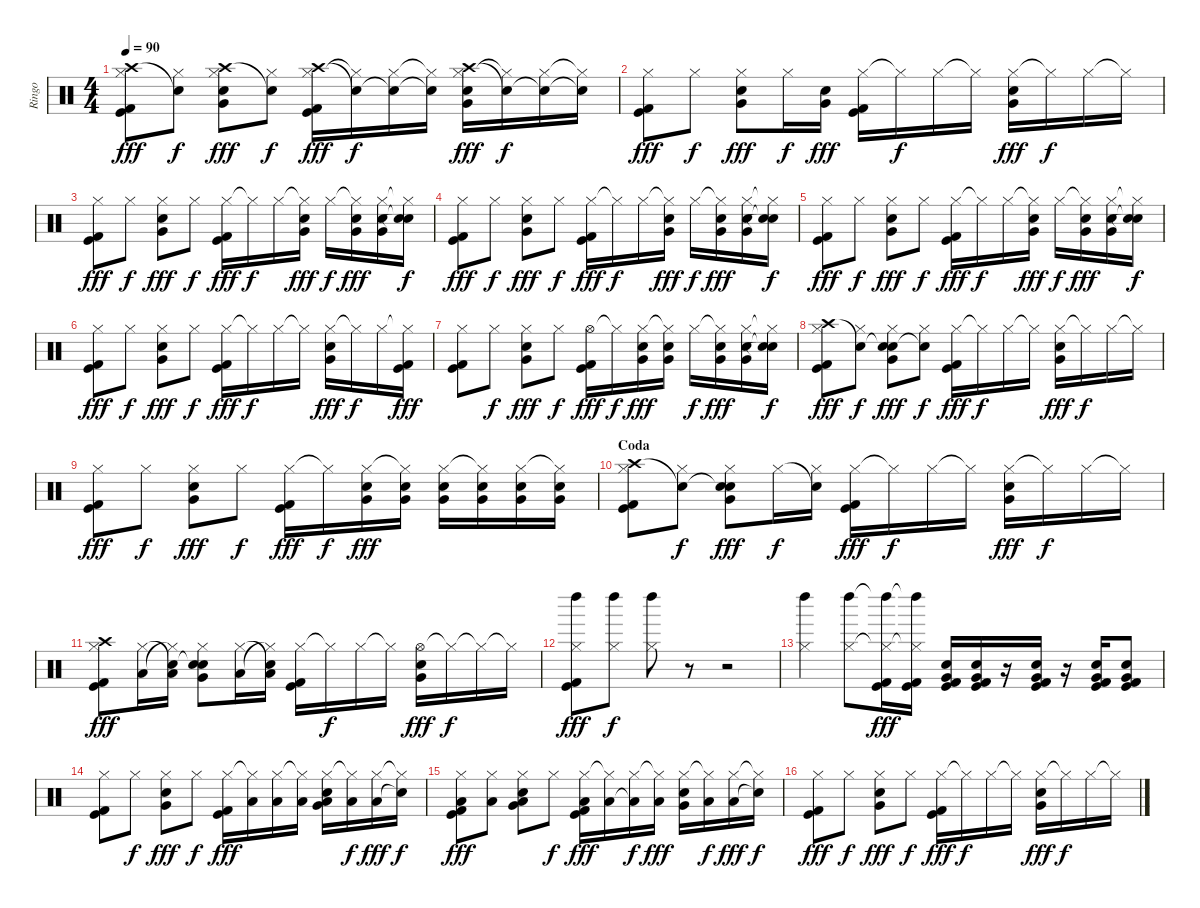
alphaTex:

\track ("Ringo" "Ringo") {instrument percussion}
\staff {score}
\articulation defaults
\ts (4 4)
\tempo 90
\clef neutral
\ks c
("Crash high (hit)" "Hi-Hat (closed)" "Kick (hit) 2" "Kick (hit)").8{dy fff} ("Snare (hit)"{t} "Hi-Hat (closed)").8{dy f} ("Crash high (hit)" "Hi-Hat (closed)" "Snare (hit) 2" "Very Low Tom (hit)").8{dy fff} ("Snare (hit)"{t} "Hi-Hat (closed)").8{dy f} ("Crash high (hit)" "Hi-Hat (closed)" "Kick (hit) 2" "Kick (hit)").16{dy fff} ("Snare (hit)"{t} "Hi-Hat (closed)"{t}).16{dy f} ("Snare (hit)"{t} "Hi-Hat (closed)").16 ("Snare (hit)"{t} "Hi-Hat (closed)"{t}).16 ("Crash high (hit)" "Hi-Hat (closed)" "Snare (hit) 2" "Very Low Tom (hit)").16{dy fff} ("Snare (hit)"{t} "Hi-Hat (closed)"{t}).16{dy f} ("Snare (hit)"{t} "Hi-Hat (closed)").16 ("Snare (hit)"{t} "Hi-Hat (closed)"{t}).16 |
("Hi-Hat (closed)" "Kick (hit) 2" "Kick (hit)").8{dy fff} "Hi-Hat (closed)".8{dy f} ("Hi-Hat (closed)" "Snare (hit) 2" "Very Low Tom (hit)").8{dy fff} "Hi-Hat (closed)".16{dy f} ("Snare (hit) 2" "Very Low Tom (hit)").16{dy fff} ("Hi-Hat (closed)" "Kick (hit) 2" "Kick (hit)").16 "Hi-Hat (closed)"{t}.16{dy f} "Hi-Hat (closed)".16 "Hi-Hat (closed)"{t}.16 ("Hi-Hat (closed)" "Snare (hit) 2" "Very Low Tom (hit)").16{dy fff} "Hi-Hat (closed)"{t}.16{dy f} "Hi-Hat (closed)".16 "Hi-Hat (closed)"{t}.16 |
("Hi-Hat (closed)" "Kick (hit) 2" "Kick (hit)").8{dy fff} "Hi-Hat (closed)".8{dy f} ("Hi-Hat (closed)" "Snare (hit) 2" "Very Low Tom (hit)").8{dy fff} "Hi-Hat (closed)".8{dy f} ("Hi-Hat (closed)" "Kick (hit) 2" "Kick (hit)").16{dy fff} "Hi-Hat (closed)"{t}.16{dy f} "Hi-Hat (closed)".16 ("Hi-Hat (closed)"{t} "Snare (hit) 2" "Very Low Tom (hit)").16{dy fff} "Hi-Hat (closed)".16{dy f} ("Hi-Hat (closed)"{t} "Snare (hit) 2" "Very Low Tom (hit)").16{dy fff} ("Hi-Hat (closed)" "Snare (hit) 2" "Very Low Tom (hit)").16 ("Hi-Hat (closed)"{t} "Snare (hit)"{t} "Snare (hit)"{t}).16{dy f} |
("Hi-Hat (closed)" "Kick (hit) 2" "Kick (hit)").8{dy fff} "Hi-Hat (closed)".8{dy f} ("Hi-Hat (closed)" "Snare (hit) 2" "Very Low Tom (hit)").8{dy fff} "Hi-Hat (closed)".8{dy f} ("Hi-Hat (closed)" "Kick (hit) 2" "Kick (hit)").16{dy fff} "Hi-Hat (closed)"{t}.16{dy f} "Hi-Hat (closed)".16 ("Hi-Hat (closed)"{t} "Snare (hit) 2" "Very Low Tom (hit)").16{dy fff} "Hi-Hat (closed)".16{dy f} ("Hi-Hat (closed)"{t} "Snare (hit) 2" "Very Low Tom (hit)").16{dy fff} ("Hi-Hat (closed)" "Snare (hit) 2" "Very Low Tom (hit)").16 ("Hi-Hat (closed)"{t} "Snare (hit)"{t} "Snare (hit)"{t}).16{dy f} |
("Hi-Hat (closed)" "Kick (hit) 2" "Kick (hit)").8{dy fff} "Hi-Hat (closed)".8{dy f} ("Hi-Hat (closed)" "Snare (hit) 2" "Very Low Tom (hit)").8{dy fff} "Hi-Hat (closed)".8{dy f} ("Hi-Hat (closed)" "Kick (hit) 2" "Kick (hit)").16{dy fff} "Hi-Hat (closed)"{t}.16{dy f} "Hi-Hat (closed)".16 ("Hi-Hat (closed)"{t} "Snare (hit) 2" "Very Low Tom (hit)").16{dy fff} "Hi-Hat (closed)".16{dy f} ("Hi-Hat (closed)"{t} "Snare (hit) 2" "Very Low Tom (hit)").16{dy fff} ("Hi-Hat (closed)" "Snare (hit) 2" "Very Low Tom (hit)").16 ("Hi-Hat (closed)"{t} "Snare (hit)"{t} "Snare (hit)"{t}).16{dy f} |
("Hi-Hat (closed)" "Kick (hit) 2" "Kick (hit)").8{dy fff} "Hi-Hat (closed)".8{dy f} ("Hi-Hat (closed)" "Snare (hit) 2" "Very Low Tom (hit)").8{dy fff} "Hi-Hat (closed)".8{dy f} ("Hi-Hat (closed)" "Kick (hit) 2" "Kick (hit)").16{dy fff} "Hi-Hat (closed)"{t}.16{dy f} "Hi-Hat (closed)".16 "Hi-Hat (closed)"{t}.16 ("Hi-Hat (closed)" "Snare (hit) 2" "Very Low Tom (hit)").16{dy fff} "Hi-Hat (closed)"{t}.16{dy f} "Hi-Hat (closed)".16 ("Hi-Hat (closed)"{t} "Kick (hit) 2" "Kick (hit)").16{dy fff} |
("Hi-Hat (closed)" "Kick (hit) 2" "Kick (hit)").8 "Hi-Hat (closed)".8{dy f} ("Hi-Hat (closed)" "Snare (hit) 2" "Very Low Tom (hit)").8{dy fff} "Hi-Hat (closed)".8{dy f} ("Hi-Hat (open)" "Kick (hit) 2" "Kick (hit)").16{dy fff} "Hi-Hat (closed)"{t}.16{dy f} ("Hi-Hat (closed)" "Snare (hit) 2" "Very Low Tom (hit)").16{dy fff} ("Hi-Hat (closed)"{t} "Snare (hit) 2" "Very Low Tom (hit)").16 "Hi-Hat (closed)".16{dy f} ("Hi-Hat (closed)"{t} "Snare (hit) 2" "Very Low Tom (hit)").16{dy fff} ("Hi-Hat (closed)" "Snare (hit) 2" "Very Low Tom (hit)").16 ("Hi-Hat (closed)"{t} "Snare (hit)"{t} "Snare (hit)"{t}).16{dy f} |
("Crash high (hit)" "Hi-Hat (closed)" "Kick (hit) 2" "Kick (hit)").8{dy fff} ("Snare (hit)"{t} "Hi-Hat (closed)").8{dy f} ("Snare (hit)"{t} "Hi-Hat (closed)" "Snare (hit) 2" "Very Low Tom (hit)").8{dy fff} ("Snare (hit)"{t} "Hi-Hat (closed)").8{dy f} ("Hi-Hat (closed)" "Kick (hit) 2" "Kick (hit)").16{dy fff} "Hi-Hat (closed)"{t}.16{dy f} "Hi-Hat (closed)".16 "Hi-Hat (closed)"{t}.16 ("Hi-Hat (closed)" "Snare (hit) 2" "Very Low Tom (hit)").16{dy fff} "Hi-Hat (closed)"{t}.16{dy f} "Hi-Hat (closed)".16 "Hi-Hat (closed)"{t}.16 |
("Hi-Hat (closed)" "Kick (hit) 2" "Kick (hit)").8{dy fff} "Hi-Hat (closed)".8{dy f} ("Hi-Hat (closed)" "Snare (hit) 2" "Very Low Tom (hit)").8{dy fff} "Hi-Hat (closed)".8{dy f} ("Hi-Hat (closed)" "Kick (hit) 2" "Kick (hit)").16{dy fff} "Hi-Hat (closed)"{t}.16{dy f} ("Hi-Hat (closed)" "Snare (hit) 2" "Very Low Tom (hit)").16{dy fff} ("Hi-Hat (closed)"{t} "Snare (hit) 2" "Very Low Tom (hit)").16 ("Hi-Hat (closed)" "Snare (hit) 2" "Very Low Tom (hit)").16 ("Hi-Hat (closed)"{t} "Snare (hit) 2" "Very Low Tom (hit)").16 ("Hi-Hat (closed)" "Snare (hit) 2" "Very Low Tom (hit)").16 ("Hi-Hat (closed)"{t} "Snare (hit) 2" "Very Low Tom (hit)").16 |
\section ("" "Coda")
("Crash high (hit)" "Hi-Hat (closed)" "Kick (hit) 2" "Kick (hit)").8 ("Snare (hit)"{t} "Hi-Hat (closed)").8{dy f} ("Snare (hit)"{t} "Hi-Hat (closed)" "Snare (hit) 2" "Very Low Tom (hit)").8{dy fff} "Hi-Hat (closed)".16{dy f} ("Snare (hit)"{t} "Hi-Hat (closed)").16 ("Hi-Hat (closed)" "Kick (hit) 2" "Kick (hit)").16{dy fff} "Hi-Hat (closed)"{t}.16{dy f} "Hi-Hat (closed)".16 "Hi-Hat (closed)"{t}.16 ("Hi-Hat (closed)" "Snare (hit) 2" "Very Low Tom (hit)").16{dy fff} "Hi-Hat (closed)"{t}.16{dy f} "Hi-Hat (closed)".16 "Hi-Hat (closed)"{t}.16 |
("Crash high (hit)" "Hi-Hat (closed)" "Kick (hit) 2" "Kick (hit)").8{dy fff} ("Hi-Hat (closed)" "Low Floor Tom (hit)").16 ("Snare (hit)"{t} "Hi-Hat (closed)"{t} "Low Floor Tom (hit)").16 ("Snare (hit)"{t} "Hi-Hat (closed)" "Snare (hit) 2" "Very Low Tom (hit)").8 ("Hi-Hat (closed)" "Low Floor Tom (hit)").16 ("Snare (hit)"{t} "Hi-Hat (closed)"{t} "Low Floor Tom (hit)").16 ("Hi-Hat (closed)" "Kick (hit) 2" "Kick (hit)").16 "Hi-Hat (closed)"{t}.16{dy f} "Hi-Hat (closed)".16 "Hi-Hat (closed)"{t}.16 ("Hi-Hat (open)" "Snare (hit) 2" "Very Low Tom (hit)").16{dy fff} "Hi-Hat (closed)"{t}.16{dy f} "Hi-Hat (closed)"{t}.16 "Hi-Hat (closed)"{t}.16 |
("Left Maraca (hit)" "Hi-Hat (closed)" "Kick (hit) 2" "Kick (hit)").8{dy fff} ("Left Maraca (hit)" "Hi-Hat (closed)").8{dy f} ("Left Maraca (hit)" "Hi-Hat (closed)").8 r.8 r.2 |
("Left Maraca (hit)" "Hi-Hat (closed)").4 ("Left Maraca (hit)" "Hi-Hat (closed)").8 ("Left Maraca (hit)"{t} "Hi-Hat (closed)"{t} "Kick (hit) 2" "Kick (hit)").16{dy fff} ("Left Maraca (hit)"{t} "Hi-Hat (closed)"{t} "Kick (hit) 2" "Kick (hit)").16 ("Very Low Tom (hit)" "Snare (hit) 2" "Kick (hit) 2" "Kick (hit)").16 ("Very Low Tom (hit)" "Snare (hit) 2" "Kick (hit) 2" "Kick (hit)").16 r.16 ("Very Low Tom (hit)" "Snare (hit) 2" "Kick (hit) 2" "Kick (hit)").16 r.16 ("Very Low Tom (hit)" "Snare (hit) 2" "Kick (hit) 2" "Kick (hit)").16 ("Very Low Tom (hit)" "Snare (hit) 2" "Kick (hit) 2" "Kick (hit)").8 |
("Hi-Hat (closed)" "Kick (hit) 2" "Kick (hit)").8 "Hi-Hat (closed)".8{dy f} ("Hi-Hat (closed)" "Snare (hit) 2" "Very Low Tom (hit)").8{dy fff} "Hi-Hat (closed)".8{dy f} ("Hi-Hat (closed)" "Kick (hit) 2" "Kick (hit)").16{dy fff} ("Hi-Hat (closed)"{t} "Low Floor Tom (hit)").16 ("Hi-Hat (closed)" "Low Floor Tom (hit)").16 ("Hi-Hat (closed)"{t} "Low Floor Tom (hit)").16 ("Hi-Hat (closed)" "Snare (hit) 2" "Very Low Tom (hit)" "Low Floor Tom (hit)").16 ("Hi-Hat (closed)"{t} "Low Floor Tom (hit)").16{dy f} ("Hi-Hat (closed)" "Low Floor Tom (hit)").16{dy fff} ("Hi-Hat (closed)"{t} "Snare (hit)"{t}).16{dy f} |
("Hi-Hat (closed)" "Kick (hit) 2" "Kick (hit)" "Low Floor Tom (hit)").8{dy fff} ("Hi-Hat (closed)" "Low Floor Tom (hit)").8 ("Hi-Hat (closed)" "Snare (hit) 2" "Very Low Tom (hit)" "Low Floor Tom (hit)").8 "Hi-Hat (closed)".8{dy f} ("Hi-Hat (closed)" "Kick (hit) 2" "Kick (hit)" "Low Floor Tom (hit)").16{dy fff} ("Hi-Hat (closed)"{t} "Low Floor Tom (hit)").16 ("Hi-Hat (closed)" "Low Floor Tom (hit)"{t}).16{dy f} ("Hi-Hat (closed)"{t} "Low Floor Tom (hit)").16{dy fff} ("Hi-Hat (closed)" "Snare (hit) 2" "Very Low Tom (hit)").16 ("Hi-Hat (closed)"{t} "Low Floor Tom (hit)").16{dy f} ("Hi-Hat (closed)" "Low Floor Tom (hit)").16{dy fff} ("Hi-Hat (closed)"{t} "Snare (hit)"{t}).16{dy f} |
("Hi-Hat (closed)" "Kick (hit) 2" "Kick (hit)").8{dy fff} "Hi-Hat (closed)".8{dy f} ("Hi-Hat (closed)" "Snare (hit) 2" "Very Low Tom (hit)").8{dy fff} "Hi-Hat (closed)".8{dy f} ("Hi-Hat (closed)" "Kick (hit) 2" "Kick (hit)").16{dy fff} "Hi-Hat (closed)"{t}.16{dy f} "Hi-Hat (closed)".16 "Hi-Hat (closed)"{t}.16 ("Hi-Hat (closed)" "Snare (hit) 2" "Very Low Tom (hit)").16{dy fff} "Hi-Hat (closed)"{t}.16{dy f} "Hi-Hat (closed)".16 "Hi-Hat (closed)"{t}.16
